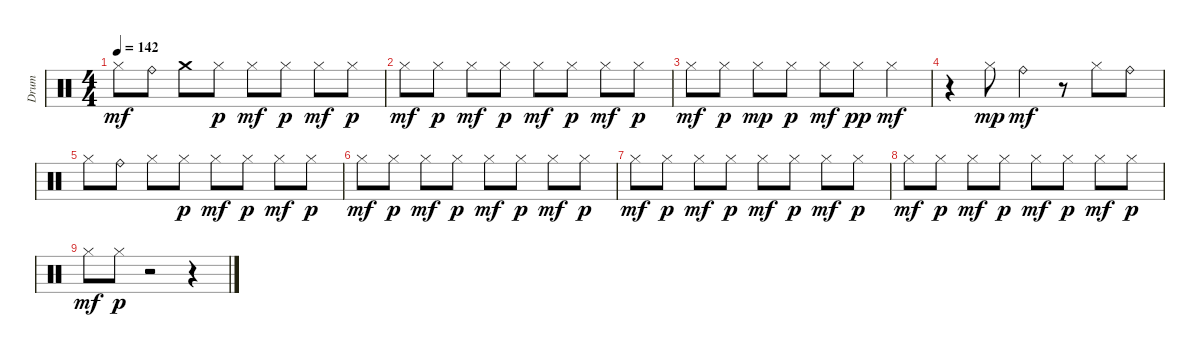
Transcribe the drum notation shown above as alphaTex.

\track ("Drum" "Drum") {instrument percussion}
\staff {score}
\articulation defaults
\ts (4 4)
\tempo 142
\clef neutral
\ks c "Hi-Hat (closed)".8{dy mf} "Ride (bell)".8 "Crash medium (hit)".8 "Hi-Hat (closed)".8{dy p} "Hi-Hat (closed)".8{dy mf} "Hi-Hat (closed)".8{dy p} "Hi-Hat (closed)".8{dy mf} "Hi-Hat (closed)".8{dy p}
|
"Hi-Hat (closed)".8{dy mf} "Hi-Hat (closed)".8{dy p} "Hi-Hat (closed)".8{dy mf} "Hi-Hat (closed)".8{dy p} "Hi-Hat (closed)".8{dy mf} "Hi-Hat (closed)".8{dy p} "Hi-Hat (closed)".8{dy mf} "Hi-Hat (closed)".8{dy p} |
"Hi-Hat (closed)".8{dy mf} "Hi-Hat (closed)".8{dy p} "Hi-Hat (closed)".8{dy mp} "Hi-Hat (closed)".8{dy p} "Hi-Hat (closed)".8{dy mf} "Hi-Hat (closed)".8{dy pp} "Hi-Hat (closed)".4{dy mf} |
r.4 "Hi-Hat (closed)".8{dy mp} "Ride (bell)".4{dy mf} r.8 "Hi-Hat (closed)".8 "Ride (bell)".8 |
"Hi-Hat (closed)".8 "Ride (bell)".8 "Hi-Hat (closed)".8 "Hi-Hat (closed)".8{dy p} "Hi-Hat (closed)".8{dy mf} "Hi-Hat (closed)".8{dy p} "Hi-Hat (closed)".8{dy mf} "Hi-Hat (closed)".8{dy p} |
"Hi-Hat (closed)".8{dy mf} "Hi-Hat (closed)".8{dy p} "Hi-Hat (closed)".8{dy mf} "Hi-Hat (closed)".8{dy p} "Hi-Hat (closed)".8{dy mf} "Hi-Hat (closed)".8{dy p} "Hi-Hat (closed)".8{dy mf} "Hi-Hat (closed)".8{dy p} |
"Hi-Hat (closed)".8{dy mf} "Hi-Hat (closed)".8{dy p} "Hi-Hat (closed)".8{dy mf} "Hi-Hat (closed)".8{dy p} "Hi-Hat (closed)".8{dy mf} "Hi-Hat (closed)".8{dy p} "Hi-Hat (closed)".8{dy mf} "Hi-Hat (closed)".8{dy p} |
"Hi-Hat (closed)".8{dy mf} "Hi-Hat (closed)".8{dy p} "Hi-Hat (closed)".8{dy mf} "Hi-Hat (closed)".8{dy p} "Hi-Hat (closed)".8{dy mf} "Hi-Hat (closed)".8{dy p} "Hi-Hat (closed)".8{dy mf} "Hi-Hat (closed)".8{dy p} |
"Hi-Hat (closed)".8{dy mf} "Hi-Hat (closed)".8{dy p} r.2 r.4
